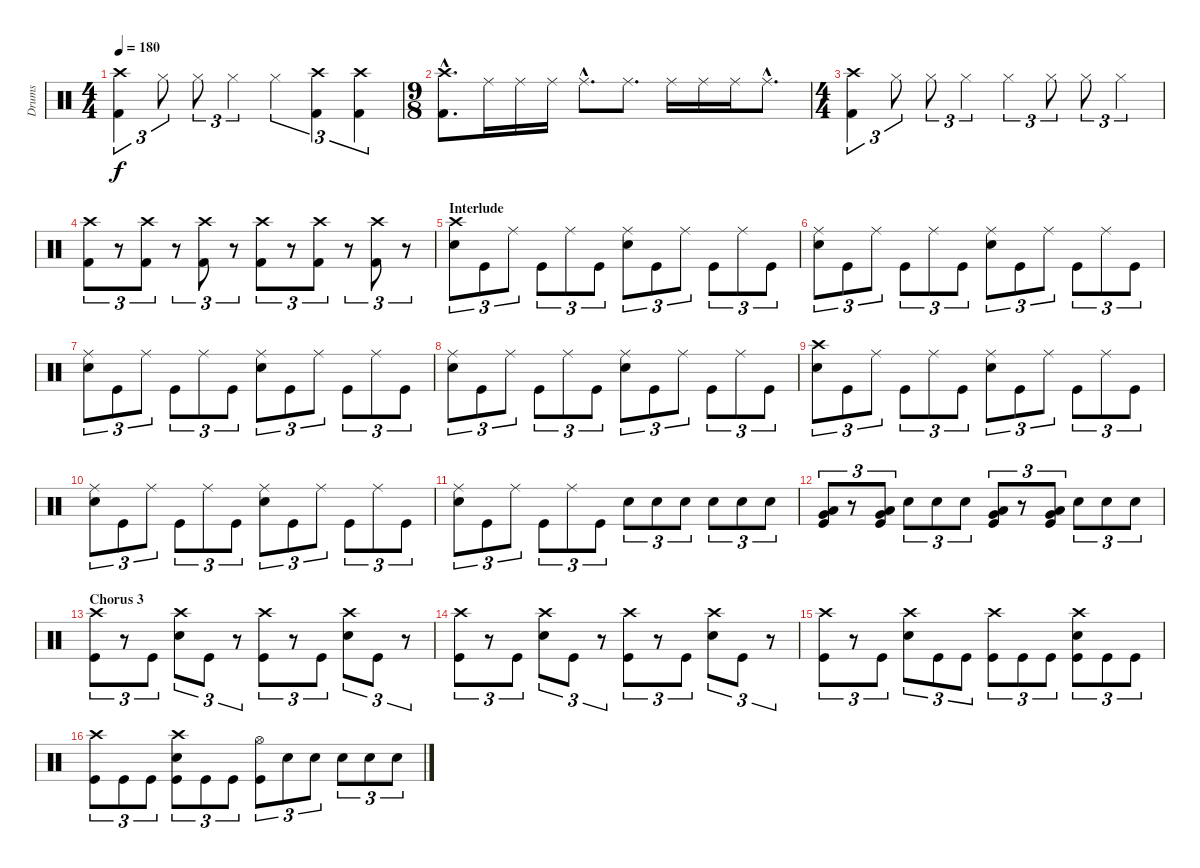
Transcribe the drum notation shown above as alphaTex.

\track ("Drums" "Drums") {instrument percussion}
\staff {score}
\articulation defaults
\ts (4 4)
\tempo 180
\clef neutral
\ks c
("Crash high (hit)" "Kick (hit) 2").4{tu (3 2) dy f} "Hi-Hat (closed)".8{tu (3 2)} "Hi-Hat (closed)".8{tu (3 2)} "Hi-Hat (closed)".4{tu (3 2)} "Hi-Hat (closed)".4{tu (3 2)} ("Crash high (hit)" "Kick (hit) 2").4{tu (3 2)} ("Crash high (hit)" "Kick (hit) 2").4{tu (3 2)} |
\ts (9 8)
("Crash high (hit)"{hac} "Kick (hit) 2"{hac}).8{d} "Ride (middle)".16 "Ride (middle)".16 "Ride (middle)".16 "Ride (middle)"{hac}.8{d} "Ride (middle)".8{d} "Ride (middle)".16 "Ride (middle)".16 "Ride (middle)".16 "Ride (middle)"{hac}.8{d} |
\ts (4 4)
("Crash high (hit)" "Kick (hit) 2").4{tu (3 2)} "Hi-Hat (closed)".8{tu (3 2)} "Hi-Hat (closed)".8{tu (3 2)} "Hi-Hat (closed)".4{tu (3 2)} "Hi-Hat (closed)".4{tu (3 2)} "Hi-Hat (closed)".8{tu (3 2)} "Hi-Hat (closed)".8{tu (3 2)} "Hi-Hat (closed)".4{tu (3 2)} |
("Crash high (hit)" "Kick (hit) 2").8{tu (3 2)} r.8{tu (3 2)} ("Crash high (hit)" "Kick (hit) 2").8{tu (3 2)} r.8{tu (3 2)} ("Crash high (hit)" "Kick (hit) 2").8{tu (3 2)} r.8{tu (3 2)} ("Crash high (hit)" "Kick (hit) 2").8{tu (3 2)} r.8{tu (3 2)} ("Crash high (hit)" "Kick (hit) 2").8{tu (3 2)} r.8{tu (3 2)} ("Crash high (hit)" "Kick (hit) 2").8{tu (3 2)} r.8{tu (3 2)} |
\section ("" "Interlude")
("Crash high (hit)" "Snare (hit) 2").8{tu (3 2)} "Kick (hit)".8{tu (3 2)} "Ride (middle)".8{tu (3 2)} "Kick (hit)".8{tu (3 2)} "Ride (middle)".8{tu (3 2)} "Kick (hit)".8{tu (3 2)} ("Ride (middle)" "Snare (hit) 2").8{tu (3 2)} "Kick (hit)".8{tu (3 2)} "Ride (middle)".8{tu (3 2)} "Kick (hit)".8{tu (3 2)} "Ride (middle)".8{tu (3 2)} "Kick (hit)".8{tu (3 2)} |
("Ride (middle)" "Snare (hit) 2").8{tu (3 2)} "Kick (hit)".8{tu (3 2)} "Ride (middle)".8{tu (3 2)} "Kick (hit)".8{tu (3 2)} "Ride (middle)".8{tu (3 2)} "Kick (hit)".8{tu (3 2)} ("Ride (middle)" "Snare (hit) 2").8{tu (3 2)} "Kick (hit)".8{tu (3 2)} "Ride (middle)".8{tu (3 2)} "Kick (hit)".8{tu (3 2)} "Ride (middle)".8{tu (3 2)} "Kick (hit)".8{tu (3 2)} |
("Ride (middle)" "Snare (hit) 2").8{tu (3 2)} "Kick (hit)".8{tu (3 2)} "Ride (middle)".8{tu (3 2)} "Kick (hit)".8{tu (3 2)} "Ride (middle)".8{tu (3 2)} "Kick (hit)".8{tu (3 2)} ("Ride (middle)" "Snare (hit) 2").8{tu (3 2)} "Kick (hit)".8{tu (3 2)} "Ride (middle)".8{tu (3 2)} "Kick (hit)".8{tu (3 2)} "Ride (middle)".8{tu (3 2)} "Kick (hit)".8{tu (3 2)} |
("Ride (middle)" "Snare (hit) 2").8{tu (3 2)} "Kick (hit)".8{tu (3 2)} "Ride (middle)".8{tu (3 2)} "Kick (hit)".8{tu (3 2)} "Ride (middle)".8{tu (3 2)} "Kick (hit)".8{tu (3 2)} ("Ride (middle)" "Snare (hit) 2").8{tu (3 2)} "Kick (hit)".8{tu (3 2)} "Ride (middle)".8{tu (3 2)} "Kick (hit)".8{tu (3 2)} "Ride (middle)".8{tu (3 2)} "Kick (hit)".8{tu (3 2)} |
("Crash high (hit)" "Snare (hit) 2").8{tu (3 2)} "Kick (hit)".8{tu (3 2)} "Ride (middle)".8{tu (3 2)} "Kick (hit)".8{tu (3 2)} "Ride (middle)".8{tu (3 2)} "Kick (hit)".8{tu (3 2)} ("Ride (middle)" "Snare (hit) 2").8{tu (3 2)} "Kick (hit)".8{tu (3 2)} "Ride (middle)".8{tu (3 2)} "Kick (hit)".8{tu (3 2)} "Ride (middle)".8{tu (3 2)} "Kick (hit)".8{tu (3 2)} |
("Ride (middle)" "Snare (hit) 2").8{tu (3 2)} "Kick (hit)".8{tu (3 2)} "Ride (middle)".8{tu (3 2)} "Kick (hit)".8{tu (3 2)} "Ride (middle)".8{tu (3 2)} "Kick (hit)".8{tu (3 2)} ("Ride (middle)" "Snare (hit) 2").8{tu (3 2)} "Kick (hit)".8{tu (3 2)} "Ride (middle)".8{tu (3 2)} "Kick (hit)".8{tu (3 2)} "Ride (middle)".8{tu (3 2)} "Kick (hit)".8{tu (3 2)} |
("Ride (middle)" "Snare (hit) 2").8{tu (3 2)} "Kick (hit)".8{tu (3 2)} "Ride (middle)".8{tu (3 2)} "Kick (hit)".8{tu (3 2)} "Ride (middle)".8{tu (3 2)} "Kick (hit)".8{tu (3 2)} "Snare (hit) 2".8{tu (3 2)} "Snare (hit) 2".8{tu (3 2)} "Snare (hit) 2".8{tu (3 2)} "Snare (hit) 2".8{tu (3 2)} "Snare (hit) 2".8{tu (3 2)} "Snare (hit) 2".8{tu (3 2)} |
("Low Tom (hit)" "Very Low Tom (hit)" "Kick (hit)").8{tu (3 2)} r.8{tu (3 2)} ("Low Tom (hit)" "Very Low Tom (hit)" "Kick (hit)").8{tu (3 2)} "Snare (hit) 2".8{tu (3 2)} "Snare (hit) 2".8{tu (3 2)} "Snare (hit) 2".8{tu (3 2)} ("Low Tom (hit)" "Very Low Tom (hit)" "Kick (hit)").8{tu (3 2)} r.8{tu (3 2)} ("Low Tom (hit)" "Very Low Tom (hit)" "Kick (hit)").8{tu (3 2)} "Snare (hit) 2".8{tu (3 2)} "Snare (hit) 2".8{tu (3 2)} "Snare (hit) 2".8{tu (3 2)} |
\section ("" "Chorus 3")
("Crash high (hit)" "Kick (hit)").8{tu (3 2)} r.8{tu (3 2)} "Kick (hit)".8{tu (3 2)} ("Crash high (hit)" "Snare (hit) 2").8{tu (3 2)} "Kick (hit)".8{tu (3 2)} r.8{tu (3 2)} ("Crash high (hit)" "Kick (hit)").8{tu (3 2)} r.8{tu (3 2)} "Kick (hit)".8{tu (3 2)} ("Crash high (hit)" "Snare (hit) 2").8{tu (3 2)} "Kick (hit)".8{tu (3 2)} r.8{tu (3 2)} |
("Crash high (hit)" "Kick (hit)").8{tu (3 2)} r.8{tu (3 2)} "Kick (hit)".8{tu (3 2)} ("Crash high (hit)" "Snare (hit) 2").8{tu (3 2)} "Kick (hit)".8{tu (3 2)} r.8{tu (3 2)} ("Crash high (hit)" "Kick (hit)").8{tu (3 2)} r.8{tu (3 2)} "Kick (hit)".8{tu (3 2)} ("Crash high (hit)" "Snare (hit) 2").8{tu (3 2)} "Kick (hit)".8{tu (3 2)} r.8{tu (3 2)} |
("Crash high (hit)" "Kick (hit)").8{tu (3 2)} r.8{tu (3 2)} "Kick (hit)".8{tu (3 2)} ("Crash high (hit)" "Snare (hit) 2").8{tu (3 2)} "Kick (hit)".8{tu (3 2)} "Kick (hit)".8{tu (3 2)} ("Crash high (hit)" "Kick (hit)").8{tu (3 2)} "Kick (hit)".8{tu (3 2)} "Kick (hit)".8{tu (3 2)} ("Crash high (hit)" "Snare (hit) 2" "Kick (hit)").8{tu (3 2)} "Kick (hit)".8{tu (3 2)} "Kick (hit)".8{tu (3 2)} |
("Crash high (hit)" "Kick (hit)").8{tu (3 2)} "Kick (hit)".8{tu (3 2)} "Kick (hit)".8{tu (3 2)} ("Crash high (hit)" "Snare (hit) 2" "Kick (hit)").8{tu (3 2)} "Kick (hit)".8{tu (3 2)} "Kick (hit)".8{tu (3 2)} ("Hi-Hat (open)" "Kick (hit)").8{tu (3 2)} "Snare (hit) 2".8{tu (3 2)} "Snare (hit) 2".8{tu (3 2)} "Snare (hit) 2".8{tu (3 2)} "Snare (hit) 2".8{tu (3 2)} "Snare (hit) 2".8{tu (3 2)}
